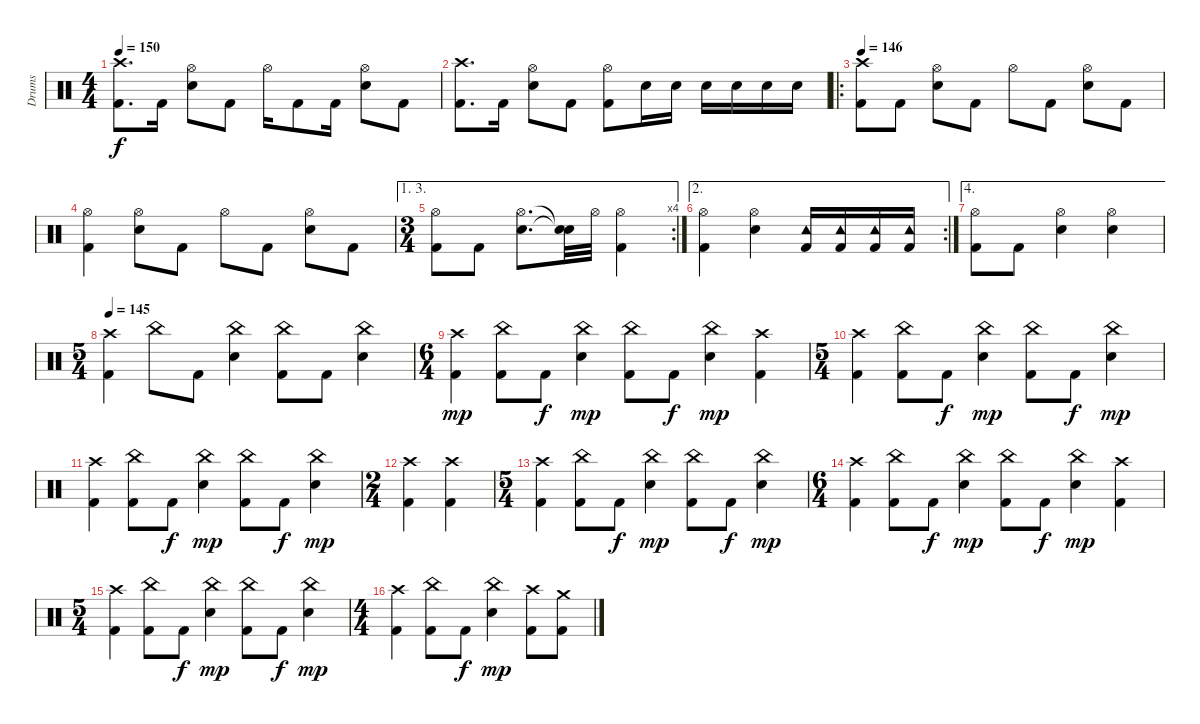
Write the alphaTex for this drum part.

\track ("Drums" "Drums") {instrument percussion}
\staff {score}
\articulation defaults
\ts (4 4)
\tempo 150
\clef neutral
\ks c
("Crash high (hit)" "Kick (hit) 2").8{d dy f} "Kick (hit) 2".16 ("Electric Snare (hit)" "Hi-Hat (open)").8 "Kick (hit) 2".8 "Hi-Hat (open)".16 "Kick (hit) 2".8 "Kick (hit) 2".16 ("Electric Snare (hit)" "Hi-Hat (open)").8 "Kick (hit) 2".8 |
("Kick (hit) 2" "Crash high (hit)").8{d} "Kick (hit) 2".16 ("Electric Snare (hit)" "Hi-Hat (open)").8 "Kick (hit) 2".8 ("Kick (hit) 2" "Hi-Hat (open)").8 "Electric Snare (hit)".16 "Electric Snare (hit)".16 "Electric Snare (hit)".16 "Electric Snare (hit)".16 "Electric Snare (hit)".16 "Electric Snare (hit)".16 |
\ro
\tempo 146
("Kick (hit) 2" "Crash high (hit)").8 "Kick (hit) 2".8 ("Electric Snare (hit)" "Hi-Hat (open)").8 "Kick (hit) 2".8 "Hi-Hat (open)".8 "Kick (hit) 2".8 ("Hi-Hat (open)" "Electric Snare (hit)").8 "Kick (hit) 2".8 |
("Hi-Hat (open)" "Kick (hit) 2").4 ("Electric Snare (hit)" "Hi-Hat (open)").8 "Kick (hit) 2".8 "Hi-Hat (open)".8 "Kick (hit) 2".8 ("Electric Snare (hit)" "Hi-Hat (open)").8 "Kick (hit) 2".8 |
\ae (1 3)
\rc 4
\ts (3 4)
("Kick (hit) 2" "Hi-Hat (open)").8 "Kick (hit) 2".8 ("Electric Snare (hit)" "Hi-Hat (open)").8{d} ("Snare (hit)"{t} "Snare (hit)"{t}).32 "Hi-Hat (open)".32 ("Kick (hit) 2" "Hi-Hat (open)").4 |
\ae 2
\rc 2
("Hi-Hat (open)" "Kick (hit) 2").4 ("Electric Snare (hit)" "Hi-Hat (open)").4 ("Tambourine (hit)" "Kick (hit) 2").16 ("Tambourine (hit)" "Kick (hit) 2").16 ("Tambourine (hit)" "Kick (hit) 2").16 ("Tambourine (hit)" "Kick (hit) 2").16 |
\ae 4
("Kick (hit) 2" "Hi-Hat (open)").8 "Kick (hit) 2".8 ("Electric Snare (hit)" "Hi-Hat (open)").4 ("Hi-Hat (open)" "Electric Snare (hit)").4 |
\ts (5 4)
\tempo 145
("Kick (hit) 2" "Crash high (hit)").4{volume 11} "China (hit)".8 "Kick (hit) 2".8 ("China (hit)" "Electric Snare (hit)").4 ("China (hit)" "Kick (hit) 2").8 "Kick (hit) 2".8 ("China (hit)" "Electric Snare (hit)").4 |
\ts (6 4)
("Crash high (hit)" "Kick (hit) 2").4{dy mp} ("Kick (hit) 2" "China (hit)").8 "Kick (hit) 2".8{dy f} ("Electric Snare (hit)" "China (hit)").4{dy mp} ("Kick (hit) 2" "China (hit)").8 "Kick (hit) 2".8{dy f} ("Electric Snare (hit)" "China (hit)").4{dy mp} ("Kick (hit) 2" "Crash high (hit)").4 |
\ts (5 4)
("Crash high (hit)" "Kick (hit) 2").4 ("China (hit)" "Kick (hit) 2").8 "Kick (hit) 2".8{dy f} ("China (hit)" "Electric Snare (hit)").4{dy mp} ("China (hit)" "Kick (hit) 2").8 "Kick (hit) 2".8{dy f} ("China (hit)" "Electric Snare (hit)").4{dy mp} |
("Kick (hit) 2" "Crash high (hit)").4 ("Kick (hit) 2" "China (hit)").8 "Kick (hit) 2".8{dy f} ("Electric Snare (hit)" "China (hit)").4{dy mp} ("Kick (hit) 2" "China (hit)").8 "Kick (hit) 2".8{dy f} ("Electric Snare (hit)" "China (hit)").4{dy mp} |
\ts (2 4)
("Kick (hit) 2" "Crash high (hit)").4 ("Crash high (hit)" "Kick (hit) 2").4 |
\ts (5 4)
("Kick (hit) 2" "Crash high (hit)").4 ("China (hit)" "Kick (hit) 2").8 "Kick (hit) 2".8{dy f} ("China (hit)" "Electric Snare (hit)").4{dy mp} ("China (hit)" "Kick (hit) 2").8 "Kick (hit) 2".8{dy f} ("China (hit)" "Electric Snare (hit)").4{dy mp} |
\ts (6 4)
("Kick (hit) 2" "Crash high (hit)").4 ("China (hit)" "Kick (hit) 2").8 "Kick (hit) 2".8{dy f} ("China (hit)" "Electric Snare (hit)").4{dy mp} ("China (hit)" "Kick (hit) 2").8 "Kick (hit) 2".8{dy f} ("China (hit)" "Electric Snare (hit)").4{dy mp} ("Crash high (hit)" "Kick (hit) 2").4 |
\ts (5 4)
("Crash high (hit)" "Kick (hit) 2").4 ("China (hit)" "Kick (hit) 2").8 "Kick (hit) 2".8{dy f} ("China (hit)" "Electric Snare (hit)").4{dy mp} ("China (hit)" "Kick (hit) 2").8 "Kick (hit) 2".8{dy f} ("China (hit)" "Electric Snare (hit)").4{dy mp} |
\ts (4 4)
("Crash high (hit)" "Kick (hit) 2").4 ("Kick (hit) 2" "China (hit)").8 "Kick (hit) 2".8{dy f} ("Electric Snare (hit)" "China (hit)").4{dy mp} ("Kick (hit) 2" "Crash high (hit)").8 ("Kick (hit) 2" "Crash medium (hit)").8
